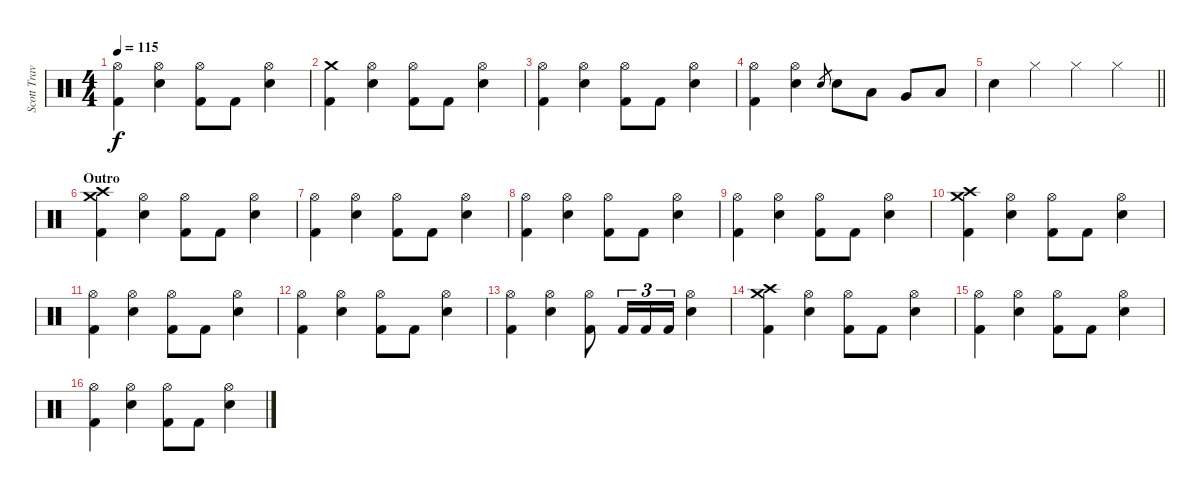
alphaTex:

\track ("Scott Travis" "Scott Trav") {instrument percussion}
\staff {score}
\articulation defaults
\ts (4 4)
\tempo 115
\clef neutral
\ks c
("Hi-Hat (open)" "Kick (hit) 2").4{dy f} ("Hi-Hat (open)" "Snare (hit) 2").4 ("Hi-Hat (open)" "Kick (hit) 2").8 "Kick (hit) 2".8 ("Hi-Hat (open)" "Snare (hit) 2").4 |
("Crash medium (hit)" "Kick (hit) 2").4 ("Hi-Hat (open)" "Snare (hit) 2").4 ("Hi-Hat (open)" "Kick (hit) 2").8 "Kick (hit) 2".8 ("Hi-Hat (open)" "Snare (hit) 2").4 |
("Hi-Hat (open)" "Kick (hit) 2").4 ("Hi-Hat (open)" "Snare (hit) 2").4 ("Hi-Hat (open)" "Kick (hit) 2").8 "Kick (hit) 2".8 ("Hi-Hat (open)" "Snare (hit) 2").4 |
("Hi-Hat (open)" "Kick (hit) 2").4 ("Hi-Hat (open)" "Snare (hit) 2").4 "Snare (hit) 2".8{gr} "Snare (hit) 2".8 "Low Tom (hit)".8 "Very Low Tom (hit)".8 "Low Floor Tom (hit)".8 |
\barLineRight lightlight "Snare (hit) 2".4 "Hi-Hat (closed)".4 "Hi-Hat (closed)".4 "Hi-Hat (closed)".4
|
\section ("" "Outro")
("Crash medium (hit)" "Crash high (hit)" "Kick (hit) 2").4 ("Hi-Hat (open)" "Snare (hit) 2").4 ("Hi-Hat (open)" "Kick (hit) 2").8 "Kick (hit) 2".8 ("Hi-Hat (open)" "Snare (hit) 2").4 |
("Hi-Hat (open)" "Kick (hit) 2").4 ("Hi-Hat (open)" "Snare (hit) 2").4 ("Hi-Hat (open)" "Kick (hit) 2").8 "Kick (hit) 2".8 ("Hi-Hat (open)" "Snare (hit) 2").4 |
("Hi-Hat (open)" "Kick (hit) 2").4 ("Hi-Hat (open)" "Snare (hit) 2").4 ("Hi-Hat (open)" "Kick (hit) 2").8 "Kick (hit) 2".8 ("Hi-Hat (open)" "Snare (hit) 2").4 |
("Hi-Hat (open)" "Kick (hit) 2").4 ("Hi-Hat (open)" "Snare (hit) 2").4 ("Hi-Hat (open)" "Kick (hit) 2").8 "Kick (hit) 2".8 ("Hi-Hat (open)" "Snare (hit) 2").4 |
("Crash medium (hit)" "Crash high (hit)" "Kick (hit) 2").4 ("Hi-Hat (open)" "Snare (hit) 2").4 ("Hi-Hat (open)" "Kick (hit) 2").8 "Kick (hit) 2".8 ("Hi-Hat (open)" "Snare (hit) 2").4 |
("Hi-Hat (open)" "Kick (hit) 2").4 ("Hi-Hat (open)" "Snare (hit) 2").4 ("Hi-Hat (open)" "Kick (hit) 2").8 "Kick (hit) 2".8 ("Hi-Hat (open)" "Snare (hit) 2").4 |
("Hi-Hat (open)" "Kick (hit) 2").4 ("Hi-Hat (open)" "Snare (hit) 2").4 ("Hi-Hat (open)" "Kick (hit) 2").8 "Kick (hit) 2".8 ("Hi-Hat (open)" "Snare (hit) 2").4 |
("Hi-Hat (open)" "Kick (hit) 2").4 ("Hi-Hat (open)" "Snare (hit) 2").4 ("Hi-Hat (open)" "Kick (hit) 2").8 "Kick (hit) 2".16{tu (3 2)} "Kick (hit) 2".16{tu (3 2)} "Kick (hit) 2".16{tu (3 2)} ("Hi-Hat (open)" "Snare (hit) 2").4 |
("Crash medium (hit)" "Crash high (hit)" "Kick (hit) 2").4 ("Hi-Hat (open)" "Snare (hit) 2").4 ("Hi-Hat (open)" "Kick (hit) 2").8 "Kick (hit) 2".8 ("Hi-Hat (open)" "Snare (hit) 2").4 |
("Hi-Hat (open)" "Kick (hit) 2").4 ("Hi-Hat (open)" "Snare (hit) 2").4 ("Hi-Hat (open)" "Kick (hit) 2").8 "Kick (hit) 2".8 ("Hi-Hat (open)" "Snare (hit) 2").4 |
("Hi-Hat (open)" "Kick (hit) 2").4 ("Hi-Hat (open)" "Snare (hit) 2").4 ("Hi-Hat (open)" "Kick (hit) 2").8 "Kick (hit) 2".8 ("Hi-Hat (open)" "Snare (hit) 2").4
